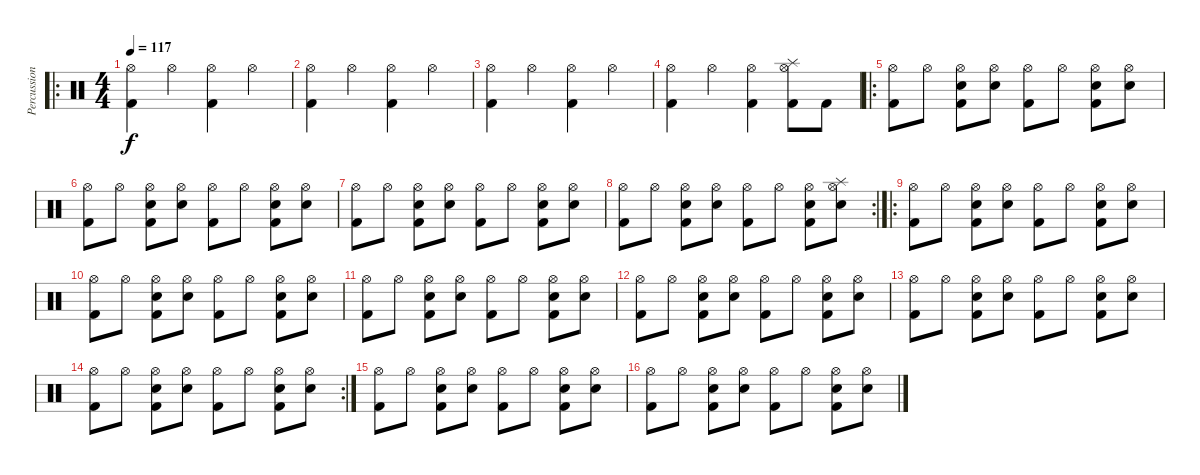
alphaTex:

\track ("Percussion" "Percussion") {instrument percussion}
\staff {score}
\articulation defaults
\ro
\ts (4 4)
\tempo 117
\clef neutral
\ks c
("Hi-Hat (open)" "Kick (hit) 2").4{dy f} "Hi-Hat (open)".4 ("Hi-Hat (open)" "Kick (hit) 2").4 "Hi-Hat (open)".4 |
("Hi-Hat (open)" "Kick (hit) 2").4 "Hi-Hat (open)".4 ("Hi-Hat (open)" "Kick (hit) 2").4 "Hi-Hat (open)".4 |
("Hi-Hat (open)" "Kick (hit) 2").4 "Hi-Hat (open)".4 ("Hi-Hat (open)" "Kick (hit) 2").4 "Hi-Hat (open)".4 |
("Hi-Hat (open)" "Kick (hit) 2").4 "Hi-Hat (open)".4 ("Hi-Hat (open)" "Kick (hit) 2").4 ("Hi-Hat (open)" "Splash (hit)" "Kick (hit) 2").8 "Kick (hit) 2".8 |
\ro
("Hi-Hat (open)" "Kick (hit) 2").8 "Hi-Hat (open)".8 ("Hi-Hat (open)" "Snare (hit) 2" "Kick (hit) 2").8 ("Hi-Hat (open)" "Snare (hit) 2").8 ("Hi-Hat (open)" "Kick (hit) 2").8 "Hi-Hat (open)".8 ("Hi-Hat (open)" "Snare (hit) 2" "Kick (hit) 2").8 ("Hi-Hat (open)" "Snare (hit) 2").8 |
("Hi-Hat (open)" "Kick (hit) 2").8 "Hi-Hat (open)".8 ("Hi-Hat (open)" "Snare (hit) 2" "Kick (hit) 2").8 ("Hi-Hat (open)" "Snare (hit) 2").8 ("Hi-Hat (open)" "Kick (hit) 2").8 "Hi-Hat (open)".8 ("Hi-Hat (open)" "Snare (hit) 2" "Kick (hit) 2").8 ("Hi-Hat (open)" "Snare (hit) 2").8 |
("Hi-Hat (open)" "Kick (hit) 2").8 "Hi-Hat (open)".8 ("Hi-Hat (open)" "Snare (hit) 2" "Kick (hit) 2").8 ("Hi-Hat (open)" "Snare (hit) 2").8 ("Hi-Hat (open)" "Kick (hit) 2").8 "Hi-Hat (open)".8 ("Hi-Hat (open)" "Snare (hit) 2" "Kick (hit) 2").8 ("Hi-Hat (open)" "Snare (hit) 2").8 |
\rc 2
("Hi-Hat (open)" "Kick (hit) 2").8 "Hi-Hat (open)".8 ("Hi-Hat (open)" "Snare (hit) 2" "Kick (hit) 2").8 ("Hi-Hat (open)" "Snare (hit) 2").8 ("Hi-Hat (open)" "Kick (hit) 2").8 "Hi-Hat (open)".8 ("Hi-Hat (open)" "Snare (hit) 2" "Kick (hit) 2").8 ("Hi-Hat (open)" "Splash (hit)" "Snare (hit) 2").8 |
\ro
("Hi-Hat (open)" "Kick (hit) 2").8 "Hi-Hat (open)".8 ("Hi-Hat (open)" "Snare (hit) 2" "Kick (hit) 2").8 ("Hi-Hat (open)" "Snare (hit) 2").8 ("Hi-Hat (open)" "Kick (hit) 2").8 "Hi-Hat (open)".8 ("Hi-Hat (open)" "Snare (hit) 2" "Kick (hit) 2").8 ("Hi-Hat (open)" "Snare (hit) 2").8 |
("Hi-Hat (open)" "Kick (hit) 2").8 "Hi-Hat (open)".8 ("Hi-Hat (open)" "Snare (hit) 2" "Kick (hit) 2").8 ("Hi-Hat (open)" "Snare (hit) 2").8 ("Hi-Hat (open)" "Kick (hit) 2").8 "Hi-Hat (open)".8 ("Hi-Hat (open)" "Snare (hit) 2" "Kick (hit) 2").8 ("Hi-Hat (open)" "Snare (hit) 2").8 |
("Hi-Hat (open)" "Kick (hit) 2").8 "Hi-Hat (open)".8 ("Hi-Hat (open)" "Snare (hit) 2" "Kick (hit) 2").8 ("Hi-Hat (open)" "Snare (hit) 2").8 ("Hi-Hat (open)" "Kick (hit) 2").8 "Hi-Hat (open)".8 ("Hi-Hat (open)" "Snare (hit) 2" "Kick (hit) 2").8 ("Hi-Hat (open)" "Snare (hit) 2").8 |
("Hi-Hat (open)" "Kick (hit) 2").8 "Hi-Hat (open)".8 ("Hi-Hat (open)" "Snare (hit) 2" "Kick (hit) 2").8 ("Hi-Hat (open)" "Snare (hit) 2").8 ("Hi-Hat (open)" "Kick (hit) 2").8 "Hi-Hat (open)".8 ("Hi-Hat (open)" "Snare (hit) 2" "Kick (hit) 2").8 ("Hi-Hat (open)" "Snare (hit) 2").8 |
("Hi-Hat (open)" "Kick (hit) 2").8 "Hi-Hat (open)".8 ("Hi-Hat (open)" "Snare (hit) 2" "Kick (hit) 2").8 ("Hi-Hat (open)" "Snare (hit) 2").8 ("Hi-Hat (open)" "Kick (hit) 2").8 "Hi-Hat (open)".8 ("Hi-Hat (open)" "Snare (hit) 2" "Kick (hit) 2").8 ("Hi-Hat (open)" "Snare (hit) 2").8 |
\rc 2
("Hi-Hat (open)" "Kick (hit) 2").8 "Hi-Hat (open)".8 ("Hi-Hat (open)" "Snare (hit) 2" "Kick (hit) 2").8 ("Hi-Hat (open)" "Snare (hit) 2").8 ("Hi-Hat (open)" "Kick (hit) 2").8 "Hi-Hat (open)".8 ("Hi-Hat (open)" "Snare (hit) 2" "Kick (hit) 2").8 ("Hi-Hat (open)" "Snare (hit) 2").8 |
("Hi-Hat (open)" "Kick (hit) 2").8 "Hi-Hat (open)".8 ("Hi-Hat (open)" "Snare (hit) 2" "Kick (hit) 2").8 ("Hi-Hat (open)" "Snare (hit) 2").8 ("Hi-Hat (open)" "Kick (hit) 2").8 "Hi-Hat (open)".8 ("Hi-Hat (open)" "Snare (hit) 2" "Kick (hit) 2").8 ("Hi-Hat (open)" "Snare (hit) 2").8 |
("Hi-Hat (open)" "Kick (hit) 2").8 "Hi-Hat (open)".8 ("Hi-Hat (open)" "Snare (hit) 2" "Kick (hit) 2").8 ("Hi-Hat (open)" "Snare (hit) 2").8 ("Hi-Hat (open)" "Kick (hit) 2").8 "Hi-Hat (open)".8 ("Hi-Hat (open)" "Snare (hit) 2" "Kick (hit) 2").8 ("Hi-Hat (open)" "Snare (hit) 2").8
